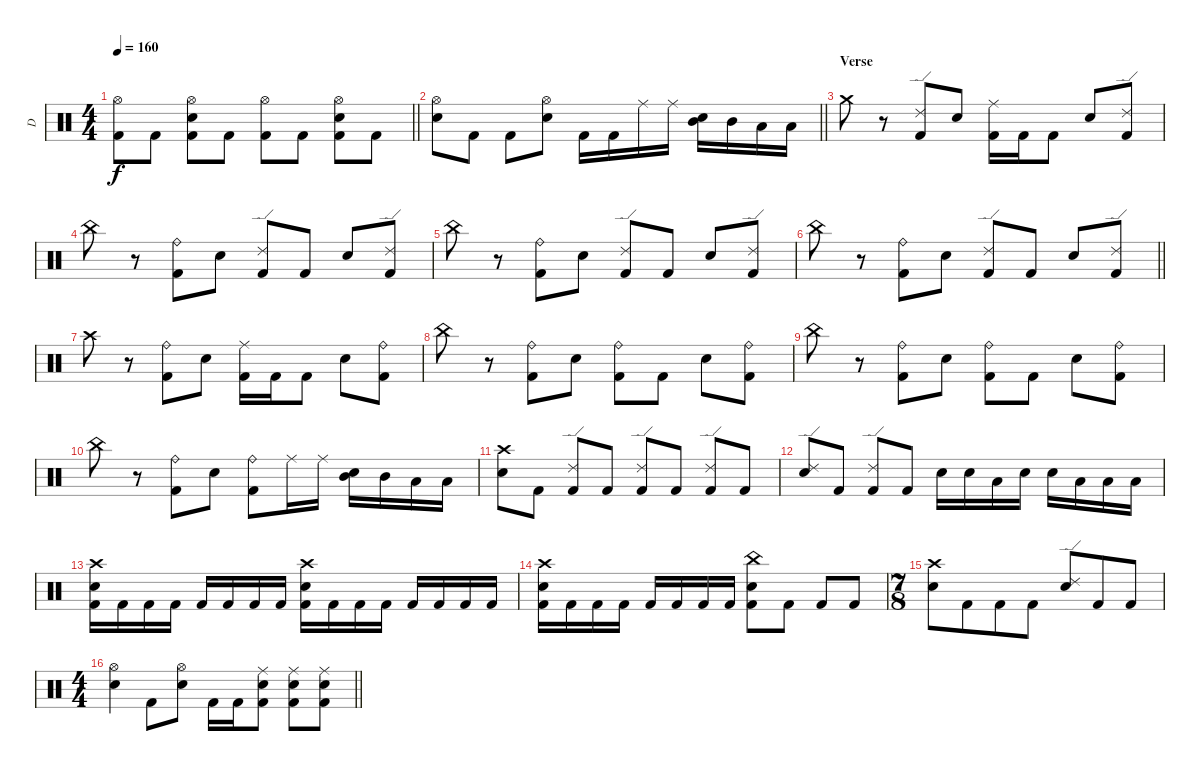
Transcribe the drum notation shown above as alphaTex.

\track ("D" "D") {instrument percussion}
\staff {score}
\articulation defaults
\ts (4 4)
\tempo 160
\clef neutral
\barLineRight lightlight
\ks c
("Hi-Hat (open)" "Kick (hit) 2").8{dy f} "Kick (hit) 2".8 ("Hi-Hat (open)" "Electric Snare (hit)" "Kick (hit) 2").8 "Kick (hit) 2".8 ("Hi-Hat (open)" "Kick (hit) 2").8 "Kick (hit) 2".8 ("Hi-Hat (open)" "Electric Snare (hit)" "Kick (hit) 2").8 "Kick (hit) 2".8 |
\barLineRight lightlight
("Hi-Hat (open)" "Electric Snare (hit)").8 "Kick (hit) 2".8 "Kick (hit) 2".8 ("Hi-Hat (open)" "Electric Snare (hit)").8 "Kick (hit) 2".16 "Kick (hit) 2".16 "Ride (middle)".16 "Ride (middle)".16 ("Mid Tom (hit)" "Electric Snare (hit)").16 "Mid Tom (hit)".16 "Low Tom (hit)".16 "Low Tom (hit)".16 |
\section ("" "Verse")
"Crash medium (hit)".8 r.8 ("Ride (edge) 2" "Kick (hit) 2").8 "Electric Snare (hit)".8 ("Ride (middle)" "Kick (hit) 2").16 "Kick (hit) 2".16 "Kick (hit) 2".8 "Electric Snare (hit)".8 ("Ride (edge) 2" "Kick (hit) 2").8 |
"China (hit)".8 r.8 ("Ride (bell)" "Kick (hit) 2").8 "Electric Snare (hit)".8 ("Ride (edge) 2" "Kick (hit) 2").8 "Kick (hit) 2".8 "Electric Snare (hit)".8 ("Ride (edge) 2" "Kick (hit) 2").8 |
"China (hit)".8 r.8 ("Ride (bell)" "Kick (hit) 2").8 "Electric Snare (hit)".8 ("Ride (edge) 2" "Kick (hit) 2").8 "Kick (hit) 2".8 "Electric Snare (hit)".8 ("Ride (edge) 2" "Kick (hit) 2").8 |
\barLineRight lightlight "China (hit)".8
r.8 ("Ride (bell)" "Kick (hit) 2").8 "Electric Snare (hit)".8 ("Ride (edge) 2" "Kick (hit) 2").8 "Kick (hit) 2".8 "Electric Snare (hit)".8 ("Ride (edge) 2" "Kick (hit) 2").8 |
"Crash high (hit)".8 r.8 ("Ride (bell)" "Kick (hit) 2").8 "Electric Snare (hit)".8 ("Ride (middle)" "Kick (hit) 2").16 "Kick (hit) 2".16 "Kick (hit) 2".8 "Electric Snare (hit)".8 ("Ride (bell)" "Kick (hit) 2").8 |
"China (hit)".8 r.8 ("Ride (bell)" "Kick (hit) 2").8 "Electric Snare (hit)".8 ("Ride (bell)" "Kick (hit) 2").8 "Kick (hit) 2".8 "Electric Snare (hit)".8 ("Ride (bell)" "Kick (hit) 2").8 |
"China (hit)".8 r.8 ("Ride (bell)" "Kick (hit) 2").8 "Electric Snare (hit)".8 ("Ride (bell)" "Kick (hit) 2").8 "Kick (hit) 2".8 "Electric Snare (hit)".8 ("Ride (bell)" "Kick (hit) 2").8 |
"China (hit)".8 r.8 ("Ride (bell)" "Kick (hit) 2").8 "Electric Snare (hit)".8 ("Ride (bell)" "Kick (hit) 2").8 "Ride (middle)".16 "Ride (middle)".16 ("Mid Tom (hit)" "Electric Snare (hit)").16 "Mid Tom (hit)".16 "Low Tom (hit)".16 "Low Tom (hit)".16 |
("Crash high (hit)" "Electric Snare (hit)").8 "Kick (hit) 2".8 ("Ride (edge) 2" "Kick (hit) 2").8 "Kick (hit) 2".8 ("Ride (edge) 2" "Kick (hit) 2").8 "Kick (hit) 2".8 ("Ride (edge) 2" "Kick (hit) 2").8 "Kick (hit) 2".8 |
("Ride (edge) 2" "Electric Snare (hit)").8 "Kick (hit) 2".8 ("Ride (edge) 2" "Kick (hit) 2").8 "Kick (hit) 2".8 "Electric Snare (hit)".16 "Electric Snare (hit)".16 "Low Floor Tom (hit)".16 "Electric Snare (hit)".16 "Electric Snare (hit)".16 "Low Floor Tom (hit)".16 "Low Floor Tom (hit)".16 "Low Floor Tom (hit)".16 |
("Crash high (hit)" "Electric Snare (hit)" "Kick (hit) 2").16 "Kick (hit) 2".16 "Kick (hit) 2".16 "Kick (hit) 2".16 "Kick (hit) 2".16 "Kick (hit) 2".16 "Kick (hit) 2".16 "Kick (hit) 2".16 ("Crash high (hit)" "Electric Snare (hit)" "Kick (hit) 2").16 "Kick (hit) 2".16 "Kick (hit) 2".16 "Kick (hit) 2".16 "Kick (hit) 2".16 "Kick (hit) 2".16 "Kick (hit) 2".16 "Kick (hit) 2".16 |
("Crash high (hit)" "Electric Snare (hit)" "Kick (hit) 2").16 "Kick (hit) 2".16 "Kick (hit) 2".16 "Kick (hit) 2".16 "Kick (hit) 2".16 "Kick (hit) 2".16 "Kick (hit) 2".16 "Kick (hit) 2".16 ("China (hit)" "Electric Snare (hit)" "Kick (hit) 2").8 "Kick (hit) 2".8 "Kick (hit) 2".8 "Kick (hit) 2".8 |
\ts (7 8)
("Crash high (hit)" "Electric Snare (hit)").8 "Kick (hit) 2".8 "Kick (hit) 2".8 "Kick (hit) 2".8 ("Ride (edge) 2" "Electric Snare (hit)").8 "Kick (hit) 2".8 "Kick (hit) 2".8 |
\ts (4 4)
\barLineRight lightlight
("Hi-Hat (open)" "Electric Snare (hit)").4 "Kick (hit) 2".8 ("Hi-Hat (open)" "Electric Snare (hit)").8 "Kick (hit) 2".16 "Kick (hit) 2".16 ("Ride (middle)" "Electric Snare (hit)" "Kick (hit) 2").8 ("Ride (middle)" "Electric Snare (hit)" "Kick (hit) 2").8 ("Ride (middle)" "Electric Snare (hit)" "Kick (hit) 2").8
